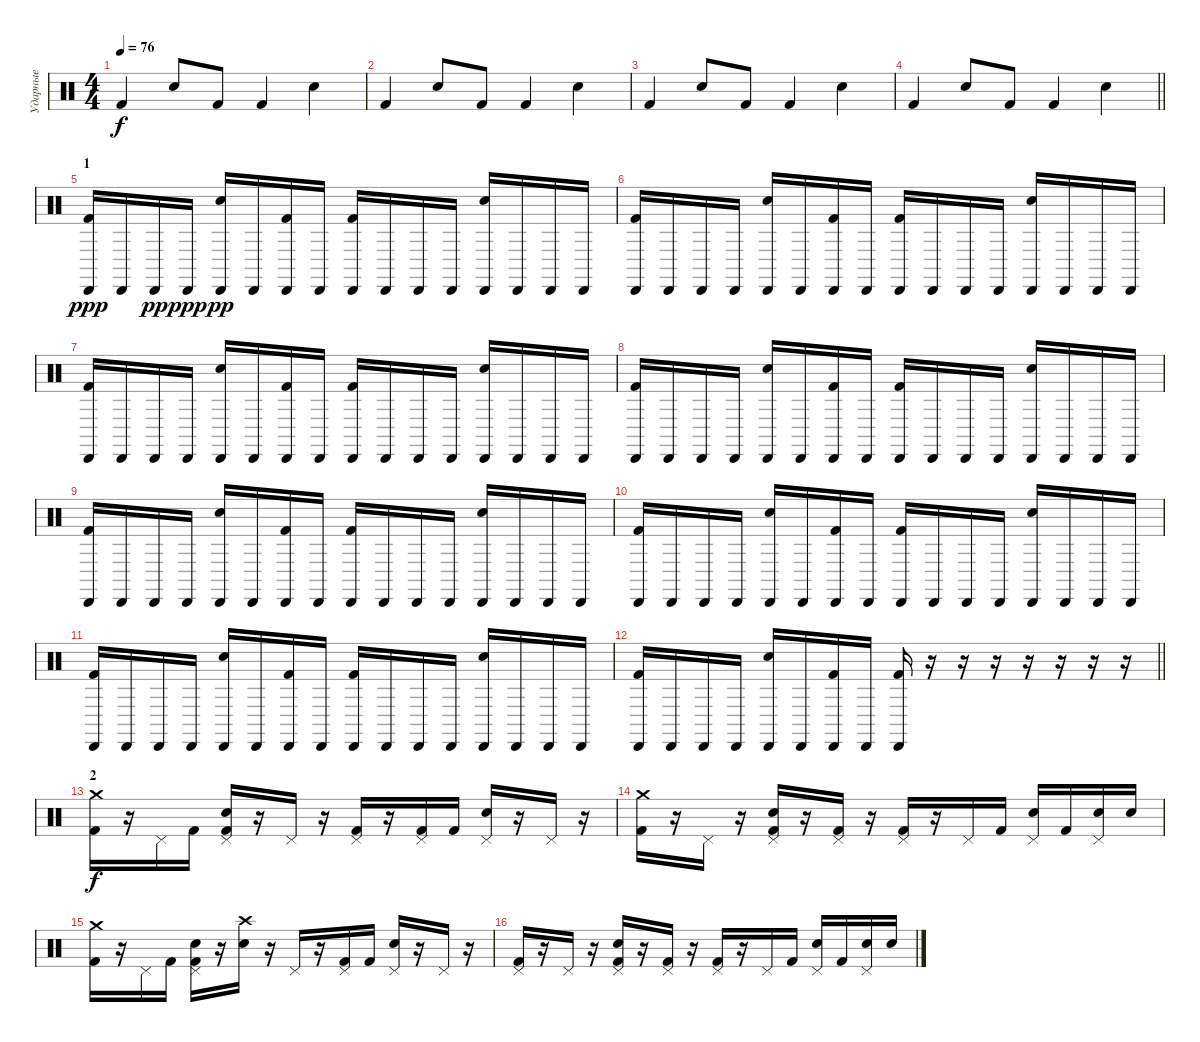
\track ("Ударные" "Ударные") {instrument percussion}
\staff {score}
\articulation defaults
\ts (4 4)
\tempo 76
\clef neutral
\ks c "Kick (hit) 2".4{dy f} "Snare (hit) 2".8 "Kick (hit) 2".8 "Kick (hit) 2".4 "Snare (hit) 2".4
|
"Kick (hit) 2".4 "Snare (hit) 2".8 "Kick (hit) 2".8 "Kick (hit) 2".4 "Snare (hit) 2".4 |
"Kick (hit) 2".4 "Snare (hit) 2".8 "Kick (hit) 2".8 "Kick (hit) 2".4 "Snare (hit) 2".4 |
\barLineRight lightlight "Kick (hit) 2".4 "Snare (hit) 2".8 "Kick (hit) 2".8 "Kick (hit) 2".4 "Snare (hit) 2".4
|
\section ("" "1")
("Cabasa (hit)" "Kick (hit) 2").16{dy ppp} "Cabasa (hit)".16 "Cabasa (hit)".16{dy pp} "Cabasa (hit)".16{dy ppp} ("Cabasa (hit)" "Snare (hit) 2").16{dy pp} "Cabasa (hit)".16 ("Cabasa (hit)" "Kick (hit) 2").16 "Cabasa (hit)".16 ("Cabasa (hit)" "Kick (hit) 2").16 "Cabasa (hit)".16 "Cabasa (hit)".16 "Cabasa (hit)".16 ("Cabasa (hit)" "Snare (hit) 2").16 "Cabasa (hit)".16 "Cabasa (hit)".16 "Cabasa (hit)".16 |
("Cabasa (hit)" "Kick (hit) 2").16 "Cabasa (hit)".16 "Cabasa (hit)".16 "Cabasa (hit)".16 ("Cabasa (hit)" "Snare (hit) 2").16 "Cabasa (hit)".16 ("Cabasa (hit)" "Kick (hit) 2").16 "Cabasa (hit)".16 ("Cabasa (hit)" "Kick (hit) 2").16 "Cabasa (hit)".16 "Cabasa (hit)".16 "Cabasa (hit)".16 ("Cabasa (hit)" "Snare (hit) 2").16 "Cabasa (hit)".16 "Cabasa (hit)".16 "Cabasa (hit)".16 |
("Cabasa (hit)" "Kick (hit) 2").16 "Cabasa (hit)".16 "Cabasa (hit)".16 "Cabasa (hit)".16 ("Cabasa (hit)" "Snare (hit) 2").16 "Cabasa (hit)".16 ("Cabasa (hit)" "Kick (hit) 2").16 "Cabasa (hit)".16 ("Cabasa (hit)" "Kick (hit) 2").16 "Cabasa (hit)".16 "Cabasa (hit)".16 "Cabasa (hit)".16 ("Cabasa (hit)" "Snare (hit) 2").16 "Cabasa (hit)".16 "Cabasa (hit)".16 "Cabasa (hit)".16 |
("Cabasa (hit)" "Kick (hit) 2").16 "Cabasa (hit)".16 "Cabasa (hit)".16 "Cabasa (hit)".16 ("Cabasa (hit)" "Snare (hit) 2").16 "Cabasa (hit)".16 ("Cabasa (hit)" "Kick (hit) 2").16 "Cabasa (hit)".16 ("Cabasa (hit)" "Kick (hit) 2").16 "Cabasa (hit)".16 "Cabasa (hit)".16 "Cabasa (hit)".16 ("Cabasa (hit)" "Snare (hit) 2").16 "Cabasa (hit)".16 "Cabasa (hit)".16 "Cabasa (hit)".16 |
("Cabasa (hit)" "Kick (hit) 2").16 "Cabasa (hit)".16 "Cabasa (hit)".16 "Cabasa (hit)".16 ("Cabasa (hit)" "Snare (hit) 2").16 "Cabasa (hit)".16 ("Cabasa (hit)" "Kick (hit) 2").16 "Cabasa (hit)".16 ("Cabasa (hit)" "Kick (hit) 2").16 "Cabasa (hit)".16 "Cabasa (hit)".16 "Cabasa (hit)".16 ("Cabasa (hit)" "Snare (hit) 2").16 "Cabasa (hit)".16 "Cabasa (hit)".16 "Cabasa (hit)".16 |
("Cabasa (hit)" "Kick (hit) 2").16 "Cabasa (hit)".16 "Cabasa (hit)".16 "Cabasa (hit)".16 ("Cabasa (hit)" "Snare (hit) 2").16 "Cabasa (hit)".16 ("Cabasa (hit)" "Kick (hit) 2").16 "Cabasa (hit)".16 ("Cabasa (hit)" "Kick (hit) 2").16 "Cabasa (hit)".16 "Cabasa (hit)".16 "Cabasa (hit)".16 ("Cabasa (hit)" "Snare (hit) 2").16 "Cabasa (hit)".16 "Cabasa (hit)".16 "Cabasa (hit)".16 |
("Cabasa (hit)" "Kick (hit) 2").16 "Cabasa (hit)".16 "Cabasa (hit)".16 "Cabasa (hit)".16 ("Cabasa (hit)" "Snare (hit) 2").16 "Cabasa (hit)".16 ("Cabasa (hit)" "Kick (hit) 2").16 "Cabasa (hit)".16 ("Cabasa (hit)" "Kick (hit) 2").16 "Cabasa (hit)".16 "Cabasa (hit)".16 "Cabasa (hit)".16 ("Cabasa (hit)" "Snare (hit) 2").16 "Cabasa (hit)".16 "Cabasa (hit)".16 "Cabasa (hit)".16 |
\barLineRight lightlight
("Cabasa (hit)" "Kick (hit) 2").16 "Cabasa (hit)".16 "Cabasa (hit)".16 "Cabasa (hit)".16 ("Cabasa (hit)" "Snare (hit) 2").16 "Cabasa (hit)".16 ("Cabasa (hit)" "Kick (hit) 2").16 "Cabasa (hit)".16 ("Cabasa (hit)" "Kick (hit) 2").16 r.16 r.16 r.16 r.16 r.16 r.16 r.16 |
\section ("" "2")
("Crash medium (hit)" "Kick (hit) 2").16{dy f} r.16 "Pedal Hi-Hat (hit)".16 "Kick (hit) 2".16 ("Pedal Hi-Hat (hit)" "Snare (hit) 2" "Kick (hit) 2").16 r.16 "Pedal Hi-Hat (hit)".16 r.16 ("Pedal Hi-Hat (hit)" "Kick (hit) 2").16 r.16 ("Pedal Hi-Hat (hit)" "Kick (hit) 2").16 "Kick (hit) 2".16 ("Pedal Hi-Hat (hit)" "Snare (hit) 2").16 r.16 "Pedal Hi-Hat (hit)".16 r.16 |
("Crash medium (hit)" "Kick (hit) 2").16 r.16 "Pedal Hi-Hat (hit)".16 r.16 ("Pedal Hi-Hat (hit)" "Snare (hit) 2" "Kick (hit) 2").16 r.16 ("Pedal Hi-Hat (hit)" "Kick (hit) 2").16 r.16 ("Pedal Hi-Hat (hit)" "Kick (hit) 2").16 r.16 "Pedal Hi-Hat (hit)".16 "Kick (hit) 2".16 ("Pedal Hi-Hat (hit)" "Snare (hit) 2").16 "Kick (hit) 2".16 ("Pedal Hi-Hat (hit)" "Snare (hit) 2").16 "Snare (hit) 2".16 |
("Crash medium (hit)" "Kick (hit) 2").16 r.16 "Pedal Hi-Hat (hit)".16 "Kick (hit) 2".16 ("Pedal Hi-Hat (hit)" "Snare (hit) 2" "Kick (hit) 2").16 r.16 ("Crash high (hit)" "Snare (hit) 2").16 r.16 "Pedal Hi-Hat (hit)".16 r.16 ("Pedal Hi-Hat (hit)" "Kick (hit) 2").16 "Kick (hit) 2".16 ("Pedal Hi-Hat (hit)" "Snare (hit) 2").16 r.16 "Pedal Hi-Hat (hit)".16 r.16 |
("Pedal Hi-Hat (hit)" "Kick (hit) 2").16 r.16 "Pedal Hi-Hat (hit)".16 r.16 ("Pedal Hi-Hat (hit)" "Snare (hit) 2" "Kick (hit) 2").16 r.16 ("Pedal Hi-Hat (hit)" "Kick (hit) 2").16 r.16 ("Pedal Hi-Hat (hit)" "Kick (hit) 2").16 r.16 "Pedal Hi-Hat (hit)".16 "Kick (hit) 2".16 ("Pedal Hi-Hat (hit)" "Snare (hit) 2").16 "Kick (hit) 2".16 ("Pedal Hi-Hat (hit)" "Snare (hit) 2").16 "Snare (hit) 2".16
